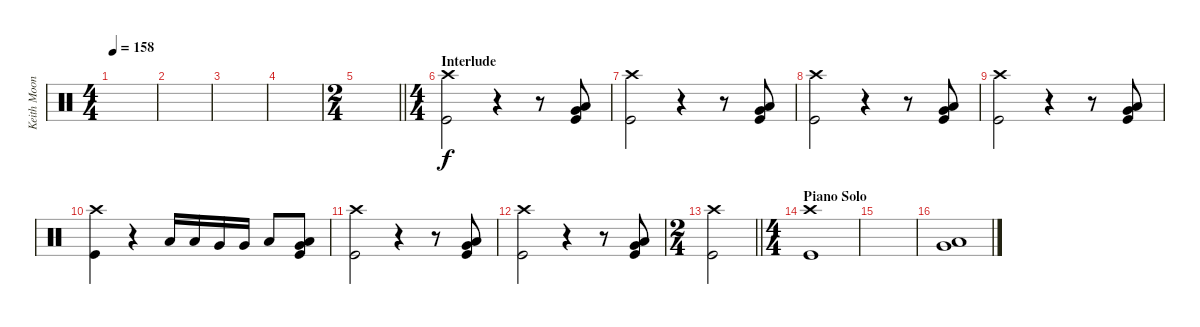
\track ("Keith Moon" "Keith Moon") {instrument percussion}
\staff {score}
\articulation defaults
\ts (4 4)
\tempo 158
\clef neutral
\ks c
|
|
|
|
\ts (2 4)
\barLineRight lightlight
|
\ts (4 4)
\section ("" "Interlude")
("Crash high (hit)" "Kick (hit)").2 r.4 r.8 ("Very Low Tom (hit)" "Low Floor Tom (hit)" "Kick (hit)").8 |
("Crash high (hit)" "Kick (hit)").2 r.4 r.8 ("Very Low Tom (hit)" "Low Floor Tom (hit)" "Kick (hit)").8 |
("Crash high (hit)" "Kick (hit)").2 r.4 r.8 ("Very Low Tom (hit)" "Low Floor Tom (hit)" "Kick (hit)").8 |
("Crash high (hit)" "Kick (hit)").2 r.4 r.8 ("Very Low Tom (hit)" "Low Floor Tom (hit)" "Kick (hit)").8 |
("Crash high (hit)" "Kick (hit)").4 r.4 "Low Tom (hit)".16 "Low Tom (hit)".16 "Very Low Tom (hit)".16 "Very Low Tom (hit)".16 "Low Floor Tom (hit)".8 ("Very Low Tom (hit)" "Low Floor Tom (hit)" "Kick (hit)").8 |
("Crash high (hit)" "Kick (hit)").2 r.4 r.8 ("Very Low Tom (hit)" "Low Floor Tom (hit)" "Kick (hit)").8 |
("Crash high (hit)" "Kick (hit)").2 r.4 r.8 ("Very Low Tom (hit)" "Low Floor Tom (hit)" "Kick (hit)").8 |
\ts (2 4)
\barLineRight lightlight
("Crash high (hit)" "Kick (hit)").2 |
\ts (4 4)
\section ("" "Piano Solo")
("Crash high (hit)" "Kick (hit)").1 |
|
("Very Low Tom (hit)" "Low Floor Tom (hit)").1
